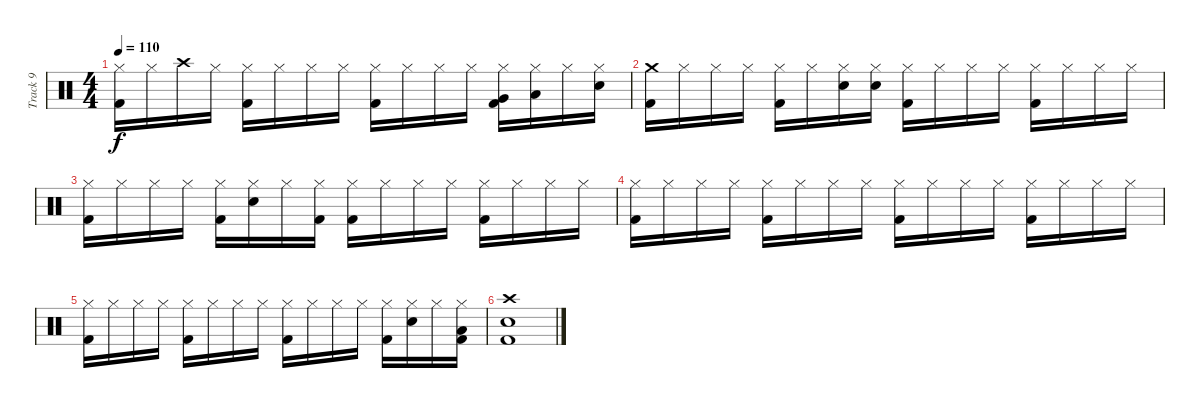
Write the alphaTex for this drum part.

\track ("Track 9" "Track 9") {instrument percussion}
\staff {score}
\articulation defaults
\ts (4 4)
\tempo 110
\clef neutral
\ks c
("Hi-Hat (closed)" "Kick (hit) 2").16{dy f} "Hi-Hat (closed)".16 "Crash high (hit)".16 "Hi-Hat (closed)".16 ("Hi-Hat (closed)" "Kick (hit) 2").16 "Hi-Hat (closed)".16 "Hi-Hat (closed)".16 "Hi-Hat (closed)".16 ("Hi-Hat (closed)" "Kick (hit) 2").16 "Hi-Hat (closed)".16 "Hi-Hat (closed)".16 "Hi-Hat (closed)".16 ("Hi-Hat (closed)" "Very Low Tom (hit)" "Kick (hit) 2").16 ("Hi-Hat (closed)" "Low Floor Tom (hit)").16 "Hi-Hat (closed)".16 ("Hi-Hat (closed)" "Snare (hit) 2").16 |
("Crash medium (hit)" "Kick (hit) 2").16 "Hi-Hat (closed)".16 "Hi-Hat (closed)".16 "Hi-Hat (closed)".16 ("Hi-Hat (closed)" "Kick (hit) 2").16 "Hi-Hat (closed)".16 ("Hi-Hat (closed)" "Snare (hit) 2").16 ("Hi-Hat (closed)" "Snare (hit) 2").16 ("Hi-Hat (closed)" "Kick (hit) 2").16 "Hi-Hat (closed)".16 "Hi-Hat (closed)".16 "Hi-Hat (closed)".16 ("Hi-Hat (closed)" "Kick (hit) 2").16 "Hi-Hat (closed)".16 "Hi-Hat (closed)".16 "Hi-Hat (closed)".16 |
("Hi-Hat (closed)" "Kick (hit) 2").16 "Hi-Hat (closed)".16 "Hi-Hat (closed)".16 "Hi-Hat (closed)".16 ("Hi-Hat (closed)" "Kick (hit) 2").16 ("Hi-Hat (closed)" "Snare (hit) 2").16 "Hi-Hat (closed)".16 ("Hi-Hat (closed)" "Kick (hit) 2").16 ("Hi-Hat (closed)" "Kick (hit) 2").16 "Hi-Hat (closed)".16 "Hi-Hat (closed)".16 "Hi-Hat (closed)".16 ("Hi-Hat (closed)" "Kick (hit) 2").16 "Hi-Hat (closed)".16 "Hi-Hat (closed)".16 "Hi-Hat (closed)".16 |
("Hi-Hat (closed)" "Kick (hit) 2").16 "Hi-Hat (closed)".16 "Hi-Hat (closed)".16 "Hi-Hat (closed)".16 ("Hi-Hat (closed)" "Kick (hit) 2").16 "Hi-Hat (closed)".16 "Hi-Hat (closed)".16 "Hi-Hat (closed)".16 ("Hi-Hat (closed)" "Kick (hit) 2").16 "Hi-Hat (closed)".16 "Hi-Hat (closed)".16 "Hi-Hat (closed)".16 ("Hi-Hat (closed)" "Kick (hit) 2").16 "Hi-Hat (closed)".16 "Hi-Hat (closed)".16 "Hi-Hat (closed)".16 |
("Hi-Hat (closed)" "Kick (hit) 2").16 "Hi-Hat (closed)".16 "Hi-Hat (closed)".16 "Hi-Hat (closed)".16 ("Hi-Hat (closed)" "Kick (hit) 2").16 "Hi-Hat (closed)".16 "Hi-Hat (closed)".16 "Hi-Hat (closed)".16 ("Hi-Hat (closed)" "Kick (hit) 2").16 "Hi-Hat (closed)".16 "Hi-Hat (closed)".16 "Hi-Hat (closed)".16 ("Hi-Hat (closed)" "Kick (hit) 2").16 ("Hi-Hat (closed)" "Snare (hit) 2").16 "Hi-Hat (closed)".16 ("Hi-Hat (closed)" "Low Floor Tom (hit)" "Kick (hit) 2").16 |
("Crash high (hit)" "Electric Snare (hit)" "Kick (hit) 2").1
